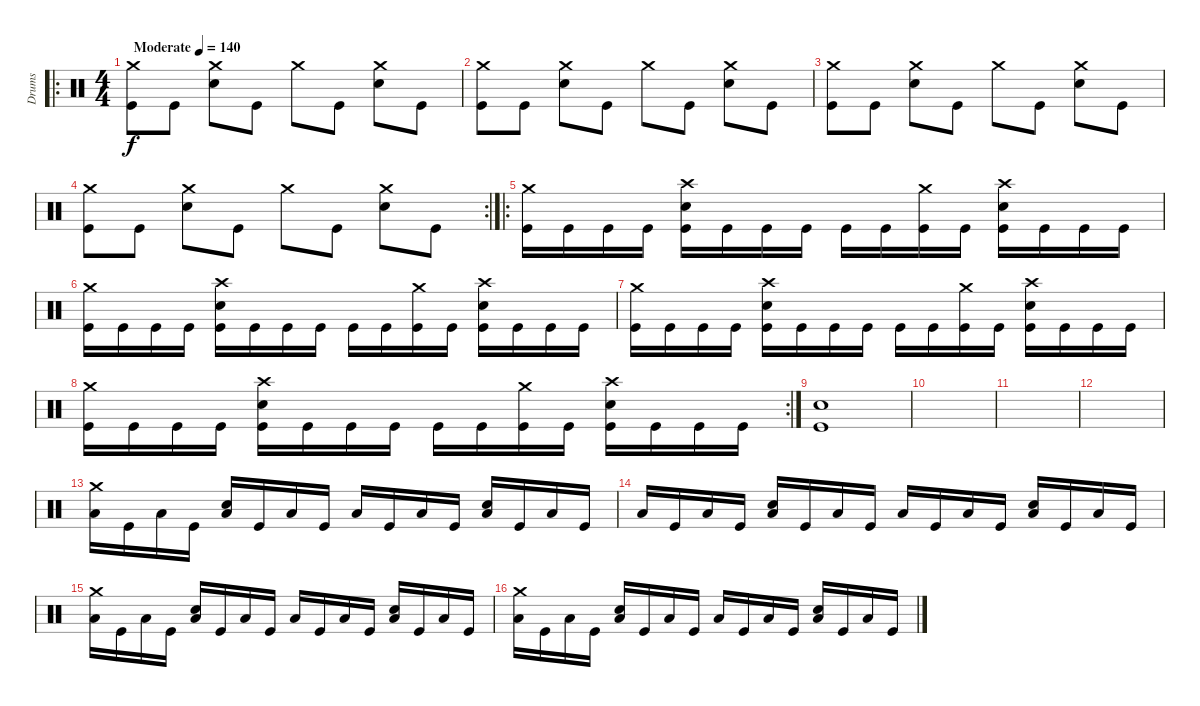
\track ("Drums" "Drums") {instrument percussion}
\staff {score}
\articulation defaults
\ro
\ts (4 4)
\tempo (140 "Moderate")
\clef neutral
\ks c
("Crash medium (hit)" "Kick (hit)").8{dy f} "Kick (hit)".8 ("Crash medium (hit)" "Snare (hit) 2").8 "Kick (hit)".8 "Crash medium (hit)".8 "Kick (hit)".8 ("Crash medium (hit)" "Snare (hit) 2").8 "Kick (hit)".8 |
("Crash medium (hit)" "Kick (hit)").8 "Kick (hit)".8 ("Crash medium (hit)" "Snare (hit) 2").8 "Kick (hit)".8 "Crash medium (hit)".8 "Kick (hit)".8 ("Crash medium (hit)" "Snare (hit) 2").8 "Kick (hit)".8 |
("Crash medium (hit)" "Kick (hit)").8 "Kick (hit)".8 ("Crash medium (hit)" "Snare (hit) 2").8 "Kick (hit)".8 "Crash medium (hit)".8 "Kick (hit)".8 ("Crash medium (hit)" "Snare (hit) 2").8 "Kick (hit)".8 |
\rc 2
("Crash medium (hit)" "Kick (hit)").8 "Kick (hit)".8 ("Crash medium (hit)" "Snare (hit) 2").8 "Kick (hit)".8 "Crash medium (hit)".8 "Kick (hit)".8 ("Crash medium (hit)" "Snare (hit) 2").8 "Kick (hit)".8 |
\ro
("Crash medium (hit)" "Kick (hit)").16 "Kick (hit)".16 "Kick (hit)".16 "Kick (hit)".16 ("Crash high (hit)" "Snare (hit) 2" "Kick (hit)").16 "Kick (hit)".16 "Kick (hit)".16 "Kick (hit)".16 "Kick (hit)".16 "Kick (hit)".16 ("Crash medium (hit)" "Kick (hit)").16 "Kick (hit)".16 ("Crash high (hit)" "Snare (hit) 2" "Kick (hit)").16 "Kick (hit)".16 "Kick (hit)".16 "Kick (hit)".16 |
("Crash medium (hit)" "Kick (hit)").16 "Kick (hit)".16 "Kick (hit)".16 "Kick (hit)".16 ("Crash high (hit)" "Snare (hit) 2" "Kick (hit)").16 "Kick (hit)".16 "Kick (hit)".16 "Kick (hit)".16 "Kick (hit)".16 "Kick (hit)".16 ("Crash medium (hit)" "Kick (hit)").16 "Kick (hit)".16 ("Crash high (hit)" "Snare (hit) 2" "Kick (hit)").16 "Kick (hit)".16 "Kick (hit)".16 "Kick (hit)".16 |
("Crash medium (hit)" "Kick (hit)").16 "Kick (hit)".16 "Kick (hit)".16 "Kick (hit)".16 ("Crash high (hit)" "Snare (hit) 2" "Kick (hit)").16 "Kick (hit)".16 "Kick (hit)".16 "Kick (hit)".16 "Kick (hit)".16 "Kick (hit)".16 ("Crash medium (hit)" "Kick (hit)").16 "Kick (hit)".16 ("Crash high (hit)" "Snare (hit) 2" "Kick (hit)").16 "Kick (hit)".16 "Kick (hit)".16 "Kick (hit)".16 |
\rc 2
("Crash medium (hit)" "Kick (hit)").16 "Kick (hit)".16 "Kick (hit)".16 "Kick (hit)".16 ("Crash high (hit)" "Snare (hit) 2" "Kick (hit)").16 "Kick (hit)".16 "Kick (hit)".16 "Kick (hit)".16 "Kick (hit)".16 "Kick (hit)".16 ("Crash medium (hit)" "Kick (hit)").16 "Kick (hit)".16 ("Crash high (hit)" "Snare (hit) 2" "Kick (hit)").16 "Kick (hit)".16 "Kick (hit)".16 "Kick (hit)".16 |
("Snare (hit) 2" "Kick (hit)").1 |
|
|
|
("Crash medium (hit)" "Low Floor Tom (hit)").16 "Kick (hit)".16 "Low Floor Tom (hit)".16 "Kick (hit)".16 ("Snare (hit) 2" "Low Floor Tom (hit)").16 "Kick (hit)".16 "Low Floor Tom (hit)".16 "Kick (hit)".16 "Low Floor Tom (hit)".16 "Kick (hit)".16 "Low Floor Tom (hit)".16 "Kick (hit)".16 ("Snare (hit) 2" "Low Floor Tom (hit)").16 "Kick (hit)".16 "Low Floor Tom (hit)".16 "Kick (hit)".16 |
"Low Floor Tom (hit)".16 "Kick (hit)".16 "Low Floor Tom (hit)".16 "Kick (hit)".16 ("Snare (hit) 2" "Low Floor Tom (hit)").16 "Kick (hit)".16 "Low Floor Tom (hit)".16 "Kick (hit)".16 "Low Floor Tom (hit)".16 "Kick (hit)".16 "Low Floor Tom (hit)".16 "Kick (hit)".16 ("Snare (hit) 2" "Low Floor Tom (hit)").16 "Kick (hit)".16 "Low Floor Tom (hit)".16 "Kick (hit)".16 |
("Crash medium (hit)" "Low Floor Tom (hit)").16 "Kick (hit)".16 "Low Floor Tom (hit)".16 "Kick (hit)".16 ("Snare (hit) 2" "Low Floor Tom (hit)").16 "Kick (hit)".16 "Low Floor Tom (hit)".16 "Kick (hit)".16 "Low Floor Tom (hit)".16 "Kick (hit)".16 "Low Floor Tom (hit)".16 "Kick (hit)".16 ("Snare (hit) 2" "Low Floor Tom (hit)").16 "Kick (hit)".16 "Low Floor Tom (hit)".16 "Kick (hit)".16 |
("Crash medium (hit)" "Low Floor Tom (hit)").16 "Kick (hit)".16 "Low Floor Tom (hit)".16 "Kick (hit)".16 ("Snare (hit) 2" "Low Floor Tom (hit)").16 "Kick (hit)".16 "Low Floor Tom (hit)".16 "Kick (hit)".16 "Low Floor Tom (hit)".16 "Kick (hit)".16 "Low Floor Tom (hit)".16 "Kick (hit)".16 ("Snare (hit) 2" "Low Floor Tom (hit)").16 "Kick (hit)".16 "Low Floor Tom (hit)".16 "Kick (hit)".16
